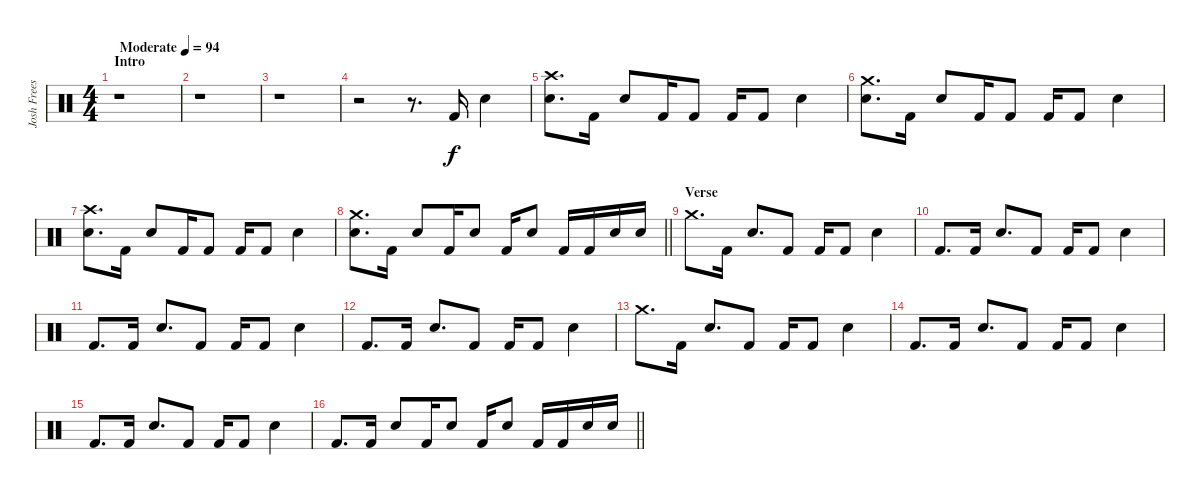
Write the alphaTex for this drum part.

\track ("Josh Freese (Studio Drummer)" "Josh Frees") {instrument percussion}
\staff {score}
\articulation defaults
\ts (4 4)
\section ("" "Intro")
\tempo (94 "Moderate")
\clef neutral
\ks c
r.1{dy f} |
r.1 |
r.1 |
r.2 r.8{d} "Kick (hit) 2".16 "Electric Snare (hit)".4 |
("Crash high (hit)" "Electric Snare (hit)").8{d} "Kick (hit) 2".16 "Electric Snare (hit)".8 "Kick (hit) 2".16 "Kick (hit) 2".8 "Kick (hit) 2".16 "Kick (hit) 2".8 "Electric Snare (hit)".4 |
("Crash medium (hit)" "Electric Snare (hit)").8{d} "Kick (hit) 2".16 "Electric Snare (hit)".8 "Kick (hit) 2".16 "Kick (hit) 2".8 "Kick (hit) 2".16 "Kick (hit) 2".8 "Electric Snare (hit)".4 |
("Crash high (hit)" "Electric Snare (hit)").8{d} "Kick (hit) 2".16 "Electric Snare (hit)".8 "Kick (hit) 2".16 "Kick (hit) 2".8 "Kick (hit) 2".16 "Kick (hit) 2".8 "Electric Snare (hit)".4 |
\barLineRight lightlight
("Crash medium (hit)" "Electric Snare (hit)").8{d} "Kick (hit) 2".16 "Electric Snare (hit)".8 "Kick (hit) 2".16 "Electric Snare (hit)".8 "Kick (hit) 2".16 "Electric Snare (hit)".8 "Kick (hit) 2".16 "Kick (hit) 2".16 "Electric Snare (hit)".16 "Electric Snare (hit)".16 |
\section ("" "Verse")
"Crash medium (hit)".8{d} "Kick (hit) 2".16 "Electric Snare (hit)".8{d} "Kick (hit) 2".8 "Kick (hit) 2".16 "Kick (hit) 2".8 "Electric Snare (hit)".4 |
"Kick (hit) 2".8{d} "Kick (hit) 2".16 "Electric Snare (hit)".8{d} "Kick (hit) 2".8 "Kick (hit) 2".16 "Kick (hit) 2".8 "Electric Snare (hit)".4 |
"Kick (hit) 2".8{d} "Kick (hit) 2".16 "Electric Snare (hit)".8{d} "Kick (hit) 2".8 "Kick (hit) 2".16 "Kick (hit) 2".8 "Electric Snare (hit)".4 |
"Kick (hit) 2".8{d} "Kick (hit) 2".16 "Electric Snare (hit)".8{d} "Kick (hit) 2".8 "Kick (hit) 2".16 "Kick (hit) 2".8 "Electric Snare (hit)".4 |
"Crash medium (hit)".8{d} "Kick (hit) 2".16 "Electric Snare (hit)".8{d} "Kick (hit) 2".8 "Kick (hit) 2".16 "Kick (hit) 2".8 "Electric Snare (hit)".4 |
"Kick (hit) 2".8{d} "Kick (hit) 2".16 "Electric Snare (hit)".8{d} "Kick (hit) 2".8 "Kick (hit) 2".16 "Kick (hit) 2".8 "Electric Snare (hit)".4 |
"Kick (hit) 2".8{d} "Kick (hit) 2".16 "Electric Snare (hit)".8{d} "Kick (hit) 2".8 "Kick (hit) 2".16 "Kick (hit) 2".8 "Electric Snare (hit)".4 |
\barLineRight lightlight "Kick (hit) 2".8{d} "Kick (hit) 2".16 "Electric Snare (hit)".8 "Kick (hit) 2".16 "Electric Snare (hit)".8 "Kick (hit) 2".16 "Electric Snare (hit)".8 "Kick (hit) 2".16 "Kick (hit) 2".16 "Electric Snare (hit)".16 "Electric Snare (hit)".16
